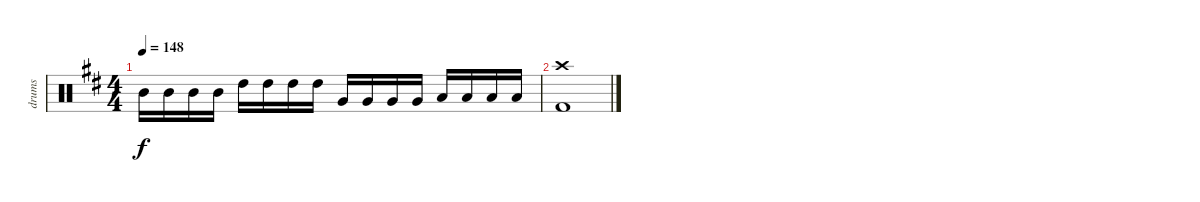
\track ("drums" "drums") {instrument percussion}
\staff {score}
\articulation defaults
\ts (4 4)
\tempo 148
\clef neutral
\ks d "Mid Tom (hit)".16{dy f} "Mid Tom (hit)".16 "Mid Tom (hit)".16 "Mid Tom (hit)".16 "High Tom (hit)".16 "High Tom (hit)".16 "High Tom (hit)".16 "High Tom (hit)".16 "Very Low Tom (hit)".16 "Very Low Tom (hit)".16 "Very Low Tom (hit)".16 "Very Low Tom (hit)".16 "Low Floor Tom (hit)".16 "Low Floor Tom (hit)".16 "Low Floor Tom (hit)".16 "Low Floor Tom (hit)".16
|
("Crash high (hit)" "Kick (hit) 2").1
